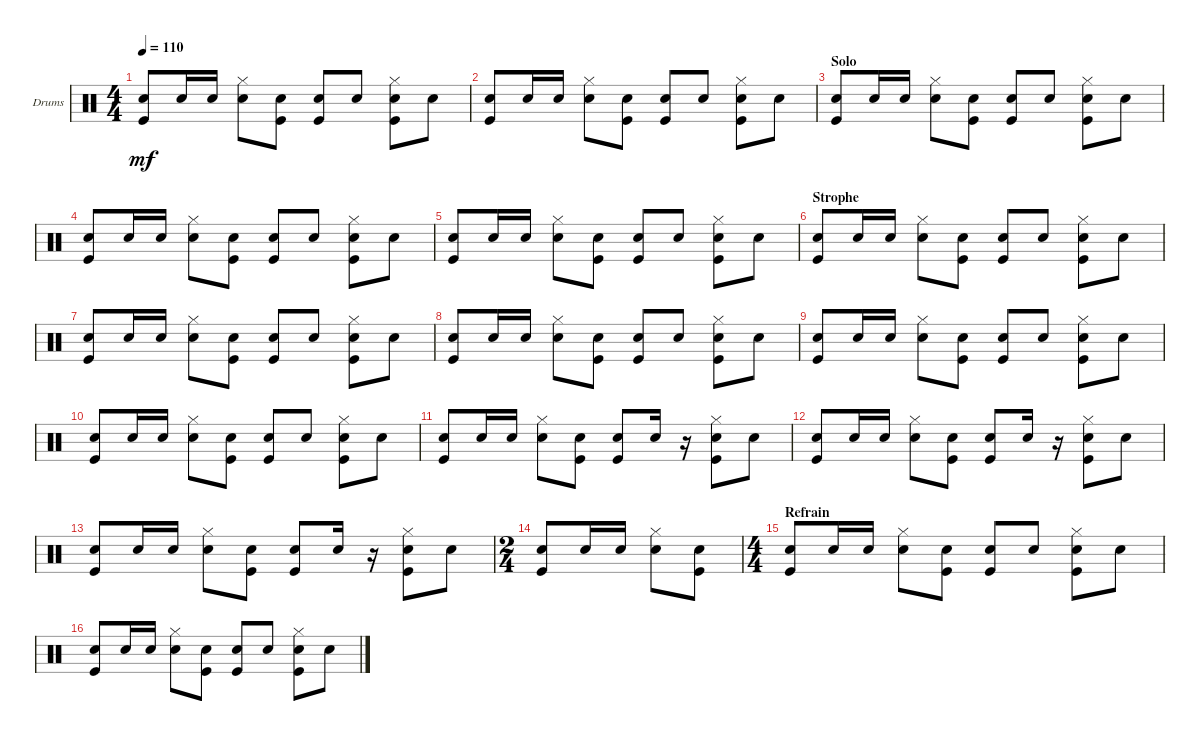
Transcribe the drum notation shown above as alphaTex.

\bracketExtendMode groupsimilarinstruments
\firstSystemTrackNameOrientation horizontal
\otherSystemsTrackNameOrientation horizontal
\track ("Drumkit" "Drums") {instrument percussion}
\staff {score}
\articulation defaults
\ts (4 4)
\tempo 110
\clef neutral
\scale
0.333333
\ks c
("Kick (hit)" "Snare (hit) 2").8{dy mf} "Snare (hit) 2".16 "Snare (hit) 2".16 ("Snare (hit) 2" "Hi-Hat (closed)").8 ("Kick (hit)" "Snare (hit) 2").8 ("Kick (hit)" "Snare (hit) 2").8 "Snare (hit) 2".8 ("Kick (hit)" "Snare (hit) 2" "Hi-Hat (closed)").8 "Snare (hit) 2".8 |
\scale
0.333333 ("Kick (hit)" "Snare (hit) 2").8 "Snare (hit) 2".16 "Snare (hit) 2".16 ("Snare (hit) 2" "Hi-Hat (closed)").8 ("Kick (hit)" "Snare (hit) 2").8 ("Kick (hit)" "Snare (hit) 2").8 "Snare (hit) 2".8 ("Kick (hit)" "Snare (hit) 2" "Hi-Hat (closed)").8 "Snare (hit) 2".8 |
\section ("" "Solo")
("Kick (hit)" "Snare (hit) 2").8 "Snare (hit) 2".16 "Snare (hit) 2".16 ("Snare (hit) 2" "Hi-Hat (closed)").8 ("Kick (hit)" "Snare (hit) 2").8 ("Kick (hit)" "Snare (hit) 2").8 "Snare (hit) 2".8 ("Kick (hit)" "Snare (hit) 2" "Hi-Hat (closed)").8 "Snare (hit) 2".8 |
("Kick (hit)" "Snare (hit) 2").8 "Snare (hit) 2".16 "Snare (hit) 2".16 ("Snare (hit) 2" "Hi-Hat (closed)").8 ("Kick (hit)" "Snare (hit) 2").8 ("Kick (hit)" "Snare (hit) 2").8 "Snare (hit) 2".8 ("Kick (hit)" "Snare (hit) 2" "Hi-Hat (closed)").8 "Snare (hit) 2".8 |
("Kick (hit)" "Snare (hit) 2").8 "Snare (hit) 2".16 "Snare (hit) 2".16 ("Snare (hit) 2" "Hi-Hat (closed)").8 ("Kick (hit)" "Snare (hit) 2").8 ("Kick (hit)" "Snare (hit) 2").8 "Snare (hit) 2".8 ("Kick (hit)" "Snare (hit) 2" "Hi-Hat (closed)").8 "Snare (hit) 2".8 |
\section ("" "Strophe")
\scale
0.333333 ("Kick (hit)" "Snare (hit) 2").8 "Snare (hit) 2".16 "Snare (hit) 2".16 ("Snare (hit) 2" "Hi-Hat (closed)").8 ("Kick (hit)" "Snare (hit) 2").8 ("Kick (hit)" "Snare (hit) 2").8 "Snare (hit) 2".8 ("Kick (hit)" "Snare (hit) 2" "Hi-Hat (closed)").8 "Snare (hit) 2".8 |
("Kick (hit)" "Snare (hit) 2").8 "Snare (hit) 2".16 "Snare (hit) 2".16 ("Snare (hit) 2" "Hi-Hat (closed)").8 ("Kick (hit)" "Snare (hit) 2").8 ("Kick (hit)" "Snare (hit) 2").8 "Snare (hit) 2".8 ("Kick (hit)" "Snare (hit) 2" "Hi-Hat (closed)").8 "Snare (hit) 2".8 |
("Kick (hit)" "Snare (hit) 2").8 "Snare (hit) 2".16 "Snare (hit) 2".16 ("Snare (hit) 2" "Hi-Hat (closed)").8 ("Kick (hit)" "Snare (hit) 2").8 ("Kick (hit)" "Snare (hit) 2").8 "Snare (hit) 2".8 ("Kick (hit)" "Snare (hit) 2" "Hi-Hat (closed)").8 "Snare (hit) 2".8 |
("Kick (hit)" "Snare (hit) 2").8 "Snare (hit) 2".16 "Snare (hit) 2".16 ("Snare (hit) 2" "Hi-Hat (closed)").8 ("Kick (hit)" "Snare (hit) 2").8 ("Kick (hit)" "Snare (hit) 2").8 "Snare (hit) 2".8 ("Kick (hit)" "Snare (hit) 2" "Hi-Hat (closed)").8 "Snare (hit) 2".8 |
("Kick (hit)" "Snare (hit) 2").8 "Snare (hit) 2".16 "Snare (hit) 2".16 ("Snare (hit) 2" "Hi-Hat (closed)").8 ("Kick (hit)" "Snare (hit) 2").8 ("Kick (hit)" "Snare (hit) 2").8 "Snare (hit) 2".8 ("Kick (hit)" "Snare (hit) 2" "Hi-Hat (closed)").8 "Snare (hit) 2".8 |
("Kick (hit)" "Snare (hit) 2").8 "Snare (hit) 2".16 "Snare (hit) 2".16 ("Snare (hit) 2" "Hi-Hat (closed)").8 ("Kick (hit)" "Snare (hit) 2").8 ("Kick (hit)" "Snare (hit) 2").8 "Snare (hit) 2".16 r.16 ("Kick (hit)" "Snare (hit) 2" "Hi-Hat (closed)").8 "Snare (hit) 2".8 |
("Kick (hit)" "Snare (hit) 2").8 "Snare (hit) 2".16 "Snare (hit) 2".16 ("Snare (hit) 2" "Hi-Hat (closed)").8 ("Kick (hit)" "Snare (hit) 2").8 ("Kick (hit)" "Snare (hit) 2").8 "Snare (hit) 2".16 r.16 ("Kick (hit)" "Snare (hit) 2" "Hi-Hat (closed)").8 "Snare (hit) 2".8 |
("Kick (hit)" "Snare (hit) 2").8 "Snare (hit) 2".16 "Snare (hit) 2".16 ("Snare (hit) 2" "Hi-Hat (closed)").8 ("Kick (hit)" "Snare (hit) 2").8 ("Kick (hit)" "Snare (hit) 2").8 "Snare (hit) 2".16 r.16 ("Kick (hit)" "Snare (hit) 2" "Hi-Hat (closed)").8 "Snare (hit) 2".8 |
\ts (2 4)
("Kick (hit)" "Snare (hit) 2").8 "Snare (hit) 2".16 "Snare (hit) 2".16 ("Snare (hit) 2" "Hi-Hat (closed)").8 ("Kick (hit)" "Snare (hit) 2").8 |
\ts (4 4)
\section ("" "Refrain")
("Kick (hit)" "Snare (hit) 2").8 "Snare (hit) 2".16 "Snare (hit) 2".16 ("Snare (hit) 2" "Hi-Hat (closed)").8 ("Kick (hit)" "Snare (hit) 2").8 ("Kick (hit)" "Snare (hit) 2").8 "Snare (hit) 2".8 ("Kick (hit)" "Snare (hit) 2" "Hi-Hat (closed)").8 "Snare (hit) 2".8 |
("Kick (hit)" "Snare (hit) 2").8 "Snare (hit) 2".16 "Snare (hit) 2".16 ("Snare (hit) 2" "Hi-Hat (closed)").8 ("Kick (hit)" "Snare (hit) 2").8 ("Kick (hit)" "Snare (hit) 2").8 "Snare (hit) 2".8 ("Kick (hit)" "Snare (hit) 2" "Hi-Hat (closed)").8 "Snare (hit) 2".8
